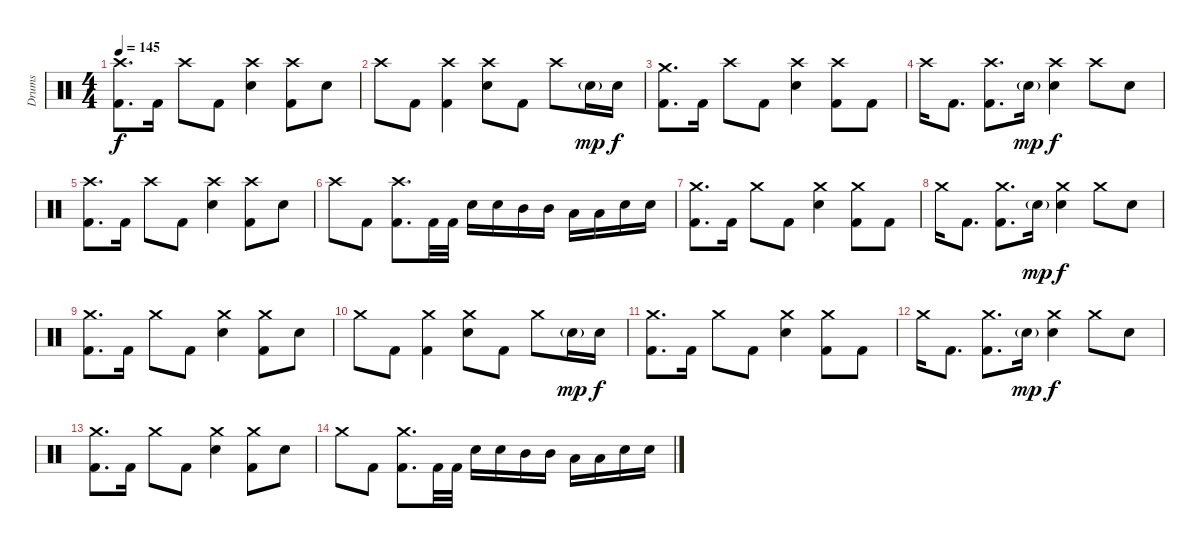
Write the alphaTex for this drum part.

\track ("Drums" "Drums") {instrument percussion}
\staff {score}
\articulation defaults
\ts (4 4)
\tempo 145
\clef neutral
\ks c
("Crash high (hit)" "Kick (hit) 2").8{d dy f} "Kick (hit) 2".16 "Crash high (hit)".8 "Kick (hit) 2".8 ("Crash high (hit)" "Snare (hit) 2").4 ("Crash high (hit)" "Kick (hit) 2").8 "Snare (hit) 2".8 |
"Crash high (hit)".8 "Kick (hit) 2".8 ("Crash high (hit)" "Kick (hit) 2").4 ("Crash high (hit)" "Snare (hit) 2").8 "Kick (hit) 2".8 "Crash high (hit)".8 "Snare (hit) 2"{g}.16{dy mp} "Snare (hit) 2".16{dy f} |
("Crash medium (hit)" "Kick (hit) 2").8{d} "Kick (hit) 2".16 "Crash high (hit)".8 "Kick (hit) 2".8 ("Crash high (hit)" "Snare (hit) 2").4 ("Crash high (hit)" "Kick (hit) 2").8 "Kick (hit) 2".8 |
"Crash high (hit)".16 "Kick (hit) 2".8{d} ("Crash high (hit)" "Kick (hit) 2").8{d} "Snare (hit) 2"{g}.16{dy mp} ("Crash high (hit)" "Snare (hit) 2").4{dy f} "Crash high (hit)".8 "Snare (hit) 2".8 |
("Crash high (hit)" "Kick (hit) 2").8{d} "Kick (hit) 2".16 "Crash high (hit)".8 "Kick (hit) 2".8 ("Crash high (hit)" "Snare (hit) 2").4 ("Crash high (hit)" "Kick (hit) 2").8 "Snare (hit) 2".8 |
"Crash high (hit)".8 "Kick (hit) 2".8 ("Crash high (hit)" "Kick (hit) 2").8{d} "Kick (hit) 2".32 "Kick (hit) 2".32 "Snare (hit) 2".16 "Snare (hit) 2".16 "Mid Tom (hit)".16 "Mid Tom (hit)".16 "Low Tom (hit)".16 "Low Tom (hit)".16 "Snare (hit) 2".16 "Snare (hit) 2".16 |
("Crash medium (hit)" "Kick (hit) 2").8{d} "Kick (hit) 2".16 "Crash medium (hit)".8 "Kick (hit) 2".8 ("Crash medium (hit)" "Snare (hit) 2").4 ("Crash medium (hit)" "Kick (hit) 2").8 "Kick (hit) 2".8 |
"Crash medium (hit)".16 "Kick (hit) 2".8{d} ("Crash medium (hit)" "Kick (hit) 2").8{d} "Snare (hit) 2"{g}.16{dy mp} ("Crash medium (hit)" "Snare (hit) 2").4{dy f} "Crash medium (hit)".8 "Snare (hit) 2".8 |
("Crash medium (hit)" "Kick (hit) 2").8{d} "Kick (hit) 2".16 "Crash medium (hit)".8 "Kick (hit) 2".8 ("Crash medium (hit)" "Snare (hit) 2").4 ("Crash medium (hit)" "Kick (hit) 2").8 "Snare (hit) 2".8 |
"Crash medium (hit)".8 "Kick (hit) 2".8 ("Crash medium (hit)" "Kick (hit) 2").4 ("Crash medium (hit)" "Snare (hit) 2").8 "Kick (hit) 2".8 "Crash medium (hit)".8 "Snare (hit) 2"{g}.16{dy mp} "Snare (hit) 2".16{dy f} |
("Crash medium (hit)" "Kick (hit) 2").8{d} "Kick (hit) 2".16 "Crash medium (hit)".8 "Kick (hit) 2".8 ("Crash medium (hit)" "Snare (hit) 2").4 ("Crash medium (hit)" "Kick (hit) 2").8 "Kick (hit) 2".8 |
"Crash medium (hit)".16 "Kick (hit) 2".8{d} ("Crash medium (hit)" "Kick (hit) 2").8{d} "Snare (hit) 2"{g}.16{dy mp} ("Crash medium (hit)" "Snare (hit) 2").4{dy f} "Crash medium (hit)".8 "Snare (hit) 2".8 |
("Crash medium (hit)" "Kick (hit) 2").8{d} "Kick (hit) 2".16 "Crash medium (hit)".8 "Kick (hit) 2".8 ("Crash medium (hit)" "Snare (hit) 2").4 ("Crash medium (hit)" "Kick (hit) 2").8 "Snare (hit) 2".8 |
"Crash medium (hit)".8 "Kick (hit) 2".8 ("Crash medium (hit)" "Kick (hit) 2").8{d} "Kick (hit) 2".32 "Kick (hit) 2".32 "Snare (hit) 2".16 "Snare (hit) 2".16 "Mid Tom (hit)".16 "Mid Tom (hit)".16 "Low Tom (hit)".16 "Low Tom (hit)".16 "Snare (hit) 2".16 "Snare (hit) 2".16
